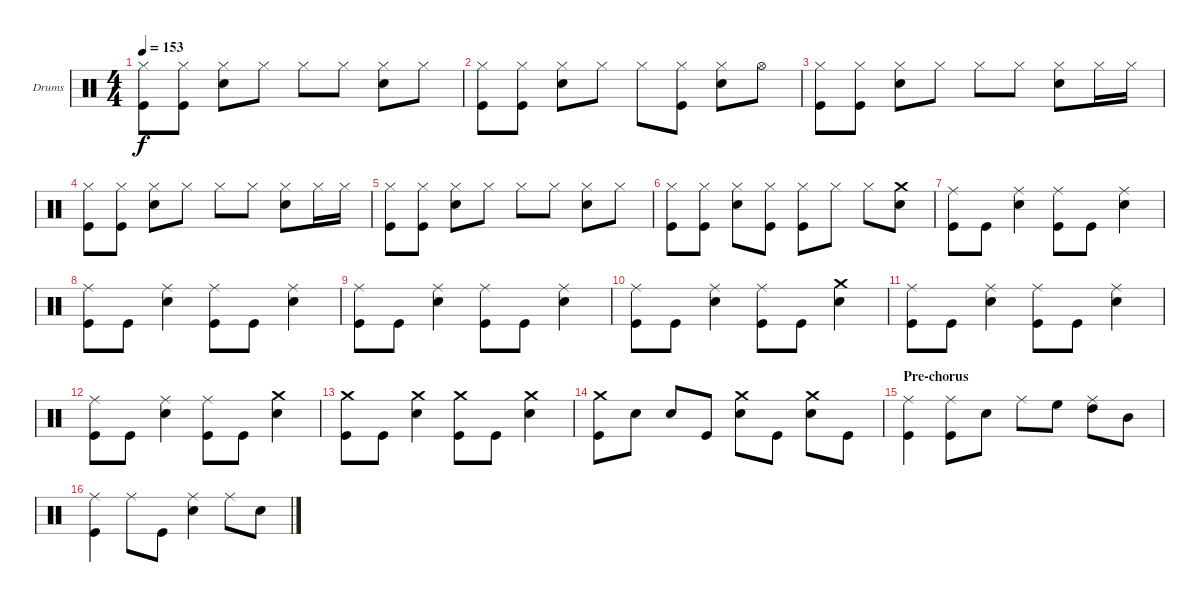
\bracketExtendMode groupsimilarinstruments
\firstSystemTrackNameOrientation horizontal
\otherSystemsTrackNameOrientation horizontal
\track ("Drumkit" "Drums") {instrument percussion}
\staff {score}
\articulation defaults
\ts (4 4)
\tempo 153
\clef neutral
\ks c
("Hi-Hat (closed)" "Kick (hit)").8{dy f} ("Hi-Hat (closed)" "Kick (hit)").8 ("Hi-Hat (closed)" "Snare (hit) 2").8 "Hi-Hat (closed)".8 "Hi-Hat (closed)".8 "Hi-Hat (closed)".8 ("Hi-Hat (closed)" "Snare (hit) 2").8 "Hi-Hat (closed)".8 |
("Hi-Hat (closed)" "Kick (hit)").8 ("Hi-Hat (closed)" "Kick (hit)").8 ("Hi-Hat (closed)" "Snare (hit) 2").8 "Hi-Hat (closed)".8 "Hi-Hat (closed)".8 ("Hi-Hat (closed)" "Kick (hit)").8 ("Hi-Hat (closed)" "Snare (hit) 2").8 "Hi-Hat (open)".8 |
("Hi-Hat (closed)" "Kick (hit)").8 ("Hi-Hat (closed)" "Kick (hit)").8 ("Hi-Hat (closed)" "Snare (hit) 2").8 "Hi-Hat (closed)".8 "Hi-Hat (closed)".8 "Hi-Hat (closed)".8 ("Hi-Hat (closed)" "Snare (hit) 2").8 "Hi-Hat (closed)".16 "Hi-Hat (closed)".16 |
("Hi-Hat (closed)" "Kick (hit)").8 ("Hi-Hat (closed)" "Kick (hit)").8 ("Hi-Hat (closed)" "Snare (hit) 2").8 "Hi-Hat (closed)".8 "Hi-Hat (closed)".8 "Hi-Hat (closed)".8 ("Hi-Hat (closed)" "Snare (hit) 2").8 "Hi-Hat (closed)".16 "Hi-Hat (closed)".16 |
("Hi-Hat (closed)" "Kick (hit)").8 ("Hi-Hat (closed)" "Kick (hit)").8 ("Hi-Hat (closed)" "Snare (hit) 2").8 "Hi-Hat (closed)".8 "Hi-Hat (closed)".8 "Hi-Hat (closed)".8 ("Hi-Hat (closed)" "Snare (hit) 2").8 "Hi-Hat (closed)".8 |
("Hi-Hat (closed)" "Kick (hit)").8 ("Hi-Hat (closed)" "Kick (hit)").8 ("Hi-Hat (closed)" "Snare (hit) 2").8 ("Hi-Hat (closed)" "Kick (hit)").8 ("Hi-Hat (closed)" "Kick (hit)").8 "Hi-Hat (closed)".8 "Hi-Hat (closed)".8 ("Crash medium (hit)" "Snare (hit) 2").8 |
("Ride (middle)" "Kick (hit)").8 "Kick (hit)".8 ("Ride (middle)" "Snare (hit) 2").4 ("Ride (middle)" "Kick (hit)").8 "Kick (hit)".8 ("Ride (middle)" "Snare (hit) 2").4 |
("Ride (middle)" "Kick (hit)").8 "Kick (hit)".8 ("Ride (middle)" "Snare (hit) 2").4 ("Ride (middle)" "Kick (hit)").8 "Kick (hit)".8 ("Ride (middle)" "Snare (hit) 2").4 |
("Ride (middle)" "Kick (hit)").8 "Kick (hit)".8 ("Ride (middle)" "Snare (hit) 2").4 ("Ride (middle)" "Kick (hit)").8 "Kick (hit)".8 ("Ride (middle)" "Snare (hit) 2").4 |
("Ride (middle)" "Kick (hit)").8 "Kick (hit)".8 ("Ride (middle)" "Snare (hit) 2").4 ("Ride (middle)" "Kick (hit)").8 "Kick (hit)".8 ("Crash medium (hit)" "Snare (hit) 2").4 |
("Ride (middle)" "Kick (hit)").8 "Kick (hit)".8 ("Ride (middle)" "Snare (hit) 2").4 ("Ride (middle)" "Kick (hit)").8 "Kick (hit)".8 ("Ride (middle)" "Snare (hit) 2").4 |
("Ride (middle)" "Kick (hit)").8 "Kick (hit)".8 ("Ride (middle)" "Snare (hit) 2").4 ("Ride (middle)" "Kick (hit)").8 "Kick (hit)".8 ("Crash medium (hit)" "Snare (hit) 2").4 |
("Crash medium (hit)" "Kick (hit)").8 "Kick (hit)".8 ("Crash medium (hit)" "Snare (hit) 2").4 ("Crash medium (hit)" "Kick (hit)").8 "Kick (hit)".8 ("Crash medium (hit)" "Snare (hit) 2").4 |
("Crash medium (hit)" "Kick (hit)").8 "Snare (hit) 2".8 "Snare (hit) 2".8 "Kick (hit)".8 ("Crash medium (hit)" "Snare (hit) 2").8 "Kick (hit)".8 ("Crash medium (hit)" "Snare (hit) 2").8 "Kick (hit)".8 |
\section ("" "Pre-chorus")
("Ride (middle)" "Kick (hit)").4 ("Ride (middle)" "Kick (hit)").8 "Snare (hit) 2".8 "Ride (middle)".8 "High Floor Tom (hit)".8 ("Ride (middle)" "High Tom (hit)").8 "Mid Tom (hit)".8 |
("Ride (middle)" "Kick (hit)").4 "Ride (middle)".8 "Kick (hit)".8 ("Ride (middle)" "Snare (hit) 2").4 "Ride (middle)".8 "Snare (hit) 2".8
